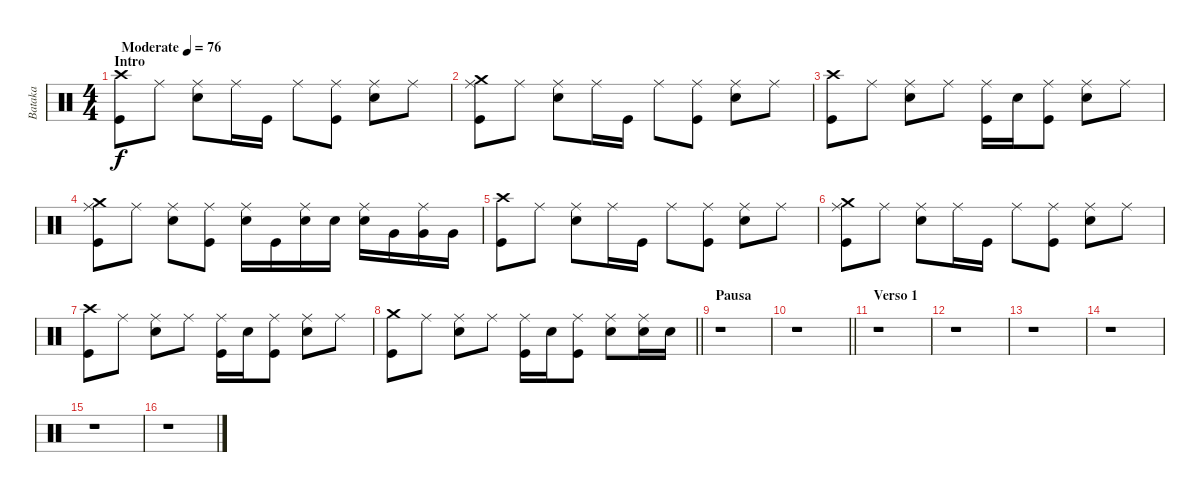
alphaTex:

\track ("Bataka" "Bataka") {instrument percussion}
\staff {score}
\articulation defaults
\ts (4 4)
\section ("" "Intro")
\tempo (76 "Moderate")
\clef neutral
\ks c
("Crash high (hit)" "Kick (hit)").8{dy f} "Ride (middle)".8 ("Ride (middle)" "Snare (hit) 2").8 "Ride (middle)".16 "Kick (hit)".16 "Ride (middle)".8 ("Ride (middle)" "Kick (hit)").8 ("Ride (middle)" "Snare (hit) 2").8 "Ride (middle)".8 |
("Ride (middle)" "Kick (hit)" "Crash medium (hit)").8 "Ride (middle)".8 ("Ride (middle)" "Snare (hit) 2").8 "Ride (middle)".16 "Kick (hit)".16 "Ride (middle)".8 ("Ride (middle)" "Kick (hit)").8 ("Ride (middle)" "Snare (hit) 2").8 "Ride (middle)".8 |
("Kick (hit)" "Crash high (hit)").8 "Ride (middle)".8 ("Ride (middle)" "Snare (hit) 2").8 "Ride (middle)".8 ("Ride (middle)" "Kick (hit)").16 "Snare (hit) 2".16 ("Ride (middle)" "Kick (hit)").8 ("Ride (middle)" "Snare (hit) 2").8 "Ride (middle)".8 |
("Ride (middle)" "Kick (hit)" "Crash medium (hit)").8 "Ride (middle)".8 ("Ride (middle)" "Snare (hit) 2").8 ("Ride (middle)" "Kick (hit)").8 ("Ride (middle)" "Snare (hit) 2").16 "Kick (hit)".16 ("Ride (middle)" "Snare (hit) 2").16 "Snare (hit) 2".16 ("Ride (middle)" "Snare (hit) 2").16 "Very Low Tom (hit)".16 ("Ride (middle)" "Very Low Tom (hit)").16 "Very Low Tom (hit)".16 |
("Crash high (hit)" "Kick (hit)").8 "Ride (middle)".8 ("Ride (middle)" "Snare (hit) 2").8 "Ride (middle)".16 "Kick (hit)".16 "Ride (middle)".8 ("Ride (middle)" "Kick (hit)").8 ("Ride (middle)" "Snare (hit) 2").8 "Ride (middle)".8 |
("Ride (middle)" "Kick (hit)" "Crash medium (hit)").8 "Ride (middle)".8 ("Ride (middle)" "Snare (hit) 2").8 "Ride (middle)".16 "Kick (hit)".16 "Ride (middle)".8 ("Ride (middle)" "Kick (hit)").8 ("Ride (middle)" "Snare (hit) 2").8 "Ride (middle)".8 |
("Kick (hit)" "Crash high (hit)").8 "Ride (middle)".8 ("Ride (middle)" "Snare (hit) 2").8 "Ride (middle)".8 ("Ride (middle)" "Kick (hit)").16 "Snare (hit) 2".16 ("Ride (middle)" "Kick (hit)").8 ("Ride (middle)" "Snare (hit) 2").8 "Ride (middle)".8 |
\barLineRight lightlight
("Kick (hit)" "Crash medium (hit)").8 "Ride (middle)".8 ("Ride (middle)" "Snare (hit) 2").8 "Ride (middle)".8 ("Ride (middle)" "Kick (hit)").16 "Snare (hit) 2".16 ("Ride (middle)" "Kick (hit)").8 ("Ride (middle)" "Snare (hit) 2").8 ("Ride (middle)" "Snare (hit) 2").16 "Snare (hit) 2".16 |
\section ("" "Pausa")
r.1 |
\barLineRight lightlight
r.1 |
\section ("" "Verso 1")
r.1 |
r.1 |
r.1 |
r.1 |
r.1 |
r.1
